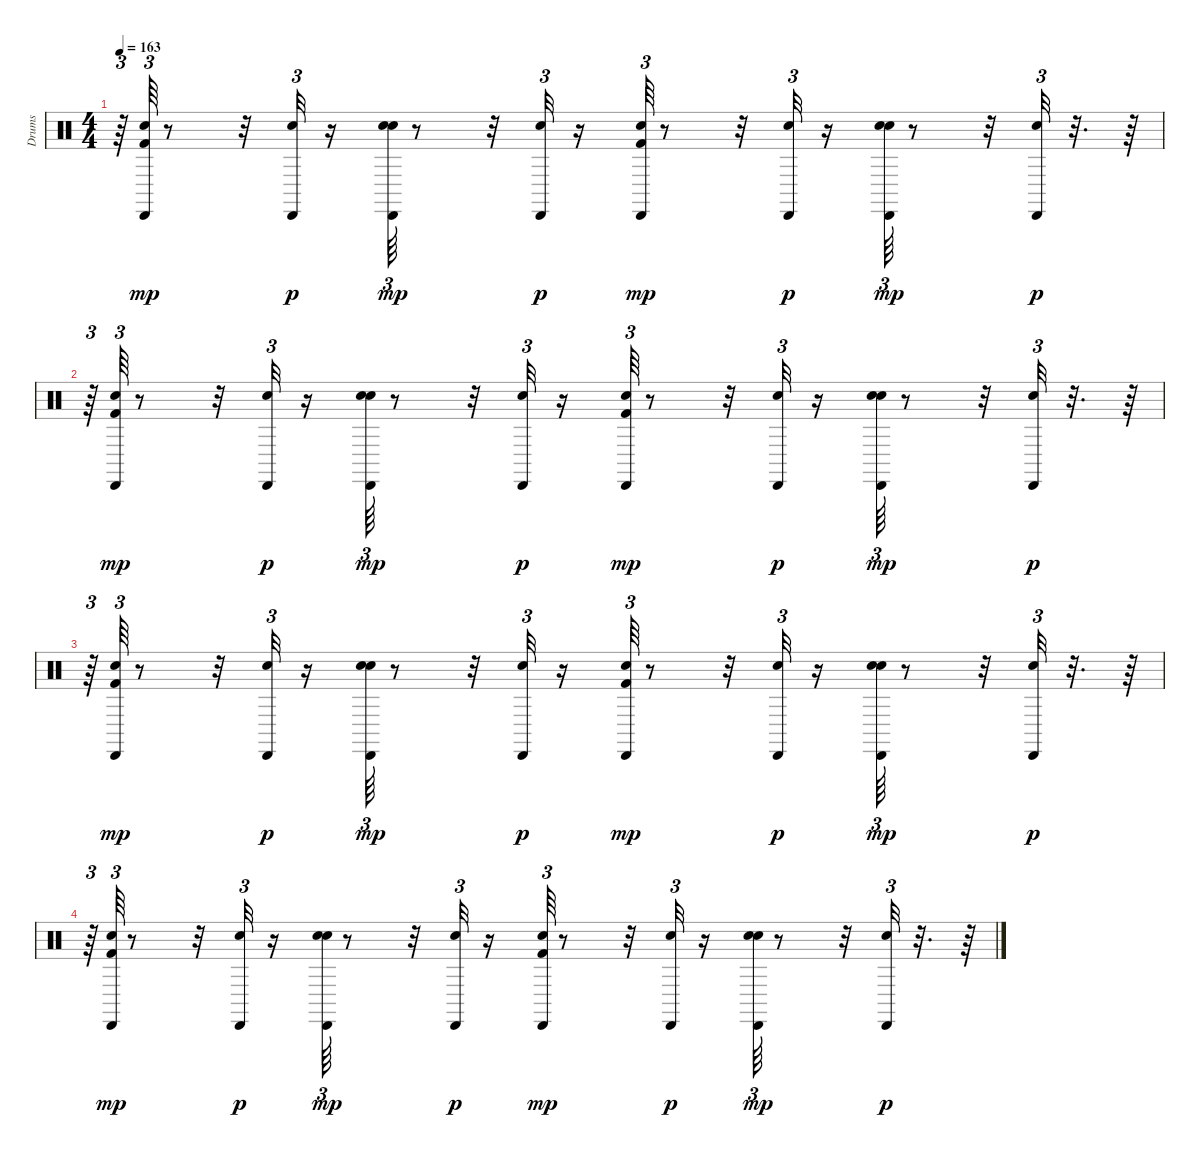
\track ("Drums               " "Drums     ") {instrument percussion}
\staff {score}
\articulation defaults
\ts (4 4)
\tempo 163
\clef neutral
\ks c
r.64{tu (3 2) dy p} ("Kick (hit) 2" "Snare (hit) 2" "Cabasa (hit)").64{tu (3 2) dy mp} r.8 r.32 ("Snare (hit) 2" "Cabasa (hit)").32{tu (3 2) dy p} r.16 ("Snare (hit) 2" "Hand Clap (hit)" "Cabasa (hit)").64{tu (3 2) dy mp} r.8 r.32 ("Snare (hit) 2" "Cabasa (hit)").32{tu (3 2) dy p} r.16 ("Kick (hit) 2" "Snare (hit) 2" "Cabasa (hit)").64{tu (3 2) dy mp} r.8 r.32 ("Snare (hit) 2" "Cabasa (hit)").32{tu (3 2) dy p} r.16 ("Snare (hit) 2" "Hand Clap (hit)" "Cabasa (hit)").64{tu (3 2) dy mp} r.8 r.32 ("Snare (hit) 2" "Cabasa (hit)").32{tu (3 2) dy p} r.32{d} r.64 |
r.64{tu (3 2)} ("Kick (hit) 2" "Snare (hit) 2" "Cabasa (hit)").64{tu (3 2) dy mp} r.8 r.32 ("Snare (hit) 2" "Cabasa (hit)").32{tu (3 2) dy p} r.16 ("Snare (hit) 2" "Hand Clap (hit)" "Cabasa (hit)").64{tu (3 2) dy mp} r.8 r.32 ("Snare (hit) 2" "Cabasa (hit)").32{tu (3 2) dy p} r.16 ("Kick (hit) 2" "Snare (hit) 2" "Cabasa (hit)").64{tu (3 2) dy mp} r.8 r.32 ("Snare (hit) 2" "Cabasa (hit)").32{tu (3 2) dy p} r.16 ("Snare (hit) 2" "Hand Clap (hit)" "Cabasa (hit)").64{tu (3 2) dy mp} r.8 r.32 ("Snare (hit) 2" "Cabasa (hit)").32{tu (3 2) dy p} r.32{d} r.64 |
r.64{tu (3 2)} ("Kick (hit) 2" "Snare (hit) 2" "Cabasa (hit)").64{tu (3 2) dy mp} r.8 r.32 ("Snare (hit) 2" "Cabasa (hit)").32{tu (3 2) dy p} r.16 ("Snare (hit) 2" "Hand Clap (hit)" "Cabasa (hit)").64{tu (3 2) dy mp} r.8 r.32 ("Snare (hit) 2" "Cabasa (hit)").32{tu (3 2) dy p} r.16 ("Kick (hit) 2" "Snare (hit) 2" "Cabasa (hit)").64{tu (3 2) dy mp} r.8 r.32 ("Snare (hit) 2" "Cabasa (hit)").32{tu (3 2) dy p} r.16 ("Snare (hit) 2" "Hand Clap (hit)" "Cabasa (hit)").64{tu (3 2) dy mp} r.8 r.32 ("Snare (hit) 2" "Cabasa (hit)").32{tu (3 2) dy p} r.32{d} r.64 |
r.64{tu (3 2)} ("Kick (hit) 2" "Snare (hit) 2" "Cabasa (hit)").64{tu (3 2) dy mp} r.8 r.32 ("Snare (hit) 2" "Cabasa (hit)").32{tu (3 2) dy p} r.16 ("Snare (hit) 2" "Hand Clap (hit)" "Cabasa (hit)").64{tu (3 2) dy mp} r.8 r.32 ("Snare (hit) 2" "Cabasa (hit)").32{tu (3 2) dy p} r.16 ("Kick (hit) 2" "Snare (hit) 2" "Cabasa (hit)").64{tu (3 2) dy mp} r.8 r.32 ("Snare (hit) 2" "Cabasa (hit)").32{tu (3 2) dy p} r.16 ("Snare (hit) 2" "Hand Clap (hit)" "Cabasa (hit)").64{tu (3 2) dy mp} r.8 r.32 ("Snare (hit) 2" "Cabasa (hit)").32{tu (3 2) dy p} r.32{d} r.64
